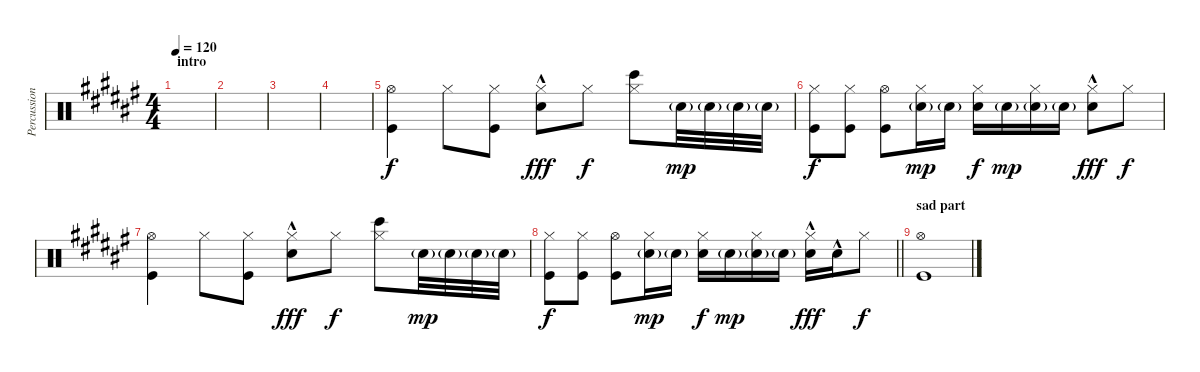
\track ("Percussion" "Percussion") {instrument percussion}
\staff {score}
\articulation defaults
\ts (4 4)
\section ("" "intro")
\tempo 120
\clef neutral
\ks f#
|
|
|
|
("Kick (hit)" "Hi-Hat (open)").4 "Hi-Hat (closed)".8 ("Hi-Hat (closed)" "Kick (hit)").8 ("Electric Snare (hit)"{hac} "Hi-Hat (closed)").8{dy fff} "Hi-Hat (closed)".8{dy f} ("Bongo High (hit)" "Hi-Hat (closed)").8 "Snare (hit) 2"{g}.32{dy mp} "Snare (hit) 2"{g}.32 "Snare (hit) 2"{g}.32 "Snare (hit) 2"{g}.32 |
("Kick (hit)" "Hi-Hat (closed)").8{dy f} ("Hi-Hat (closed)" "Kick (hit)").8 ("Kick (hit)" "Hi-Hat (open)").8 ("Hi-Hat (closed)" "Snare (hit) 2"{g}).16{dy mp} "Snare (hit) 2"{g}.16 ("Hi-Hat (closed)" "Snare (hit) 2").16{dy f} "Snare (hit) 2"{g}.16{dy mp} ("Hi-Hat (closed)" "Snare (hit) 2"{g}).16 "Snare (hit) 2"{g}.16 ("Hi-Hat (closed)" "Electric Snare (hit)"{hac}).8{dy fff} "Hi-Hat (closed)".8{dy f} |
("Kick (hit)" "Hi-Hat (open)").4 "Hi-Hat (closed)".8 ("Hi-Hat (closed)" "Kick (hit)").8 ("Electric Snare (hit)"{hac} "Hi-Hat (closed)").8{dy fff} "Hi-Hat (closed)".8{dy f} ("Bongo High (hit)" "Hi-Hat (closed)").8 "Snare (hit) 2"{g}.32{dy mp} "Snare (hit) 2"{g}.32 "Snare (hit) 2"{g}.32 "Snare (hit) 2"{g}.32 |
\barLineRight lightlight
("Kick (hit)" "Hi-Hat (closed)").8{dy f} ("Hi-Hat (closed)" "Kick (hit)").8 ("Kick (hit)" "Hi-Hat (open)").8 ("Hi-Hat (closed)" "Snare (hit) 2"{g}).16{dy mp} "Snare (hit) 2"{g}.16 ("Hi-Hat (closed)" "Snare (hit) 2").16{dy f} "Snare (hit) 2"{g}.16{dy mp} ("Hi-Hat (closed)" "Snare (hit) 2"{g}).16 "Snare (hit) 2"{g}.16 ("Hi-Hat (closed)" "Electric Snare (hit)"{hac}).16{dy fff} "Electric Snare (hit)"{hac}.16 "Hi-Hat (closed)".8{dy f} |
\section ("" "sad part")
("Hi-Hat (open)" "Kick (hit)").1
